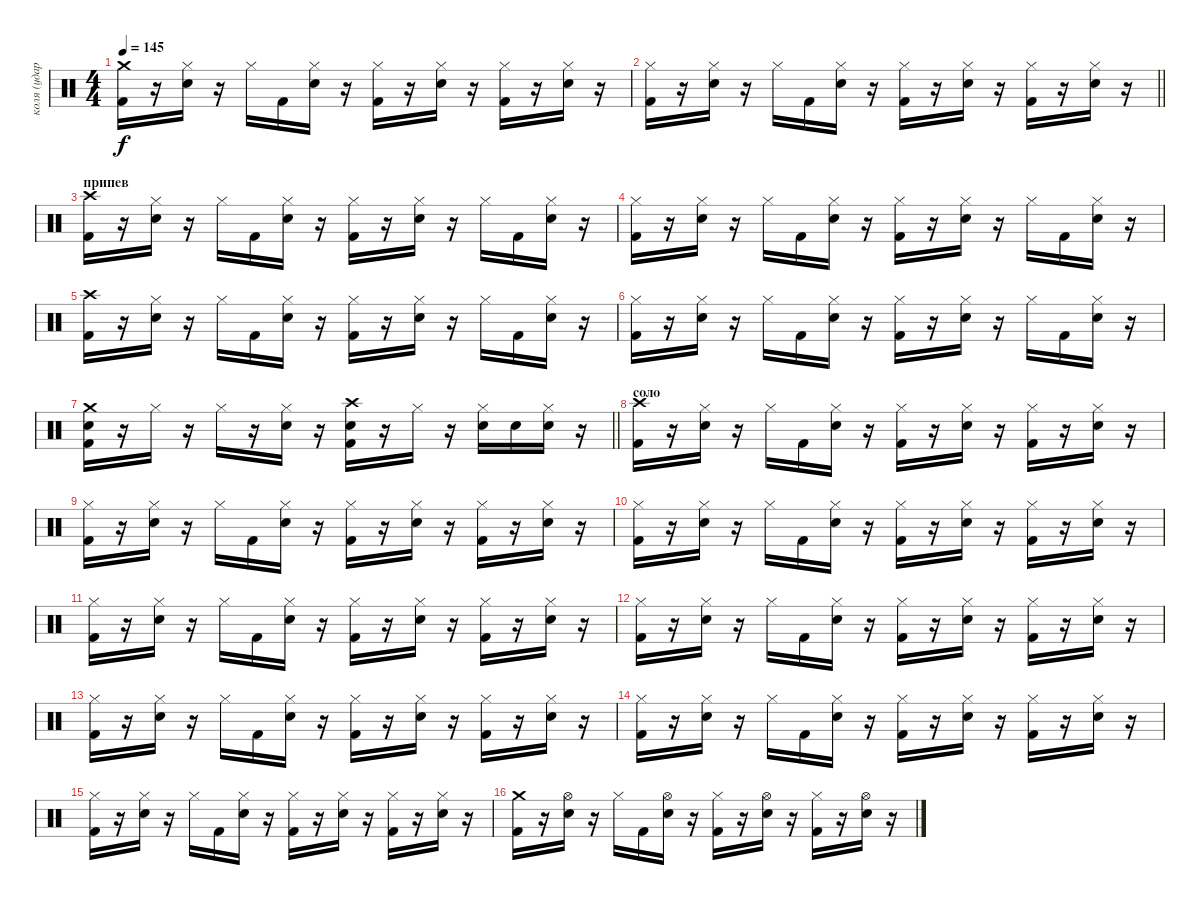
\track ("коля (ударные)" "коля (удар") {instrument percussion}
\staff {score}
\articulation defaults
\ts (4 4)
\tempo 145
\clef neutral
\ks c
("Kick (hit) 2" "Crash medium (hit)").16{dy f} r.16 ("Snare (hit) 2" "Hi-Hat (closed)").16 r.16 "Hi-Hat (closed)".16 "Kick (hit) 2".16 ("Snare (hit) 2" "Hi-Hat (closed)").16 r.16 ("Kick (hit) 2" "Hi-Hat (closed)").16 r.16 ("Snare (hit) 2" "Hi-Hat (closed)").16 r.16 ("Kick (hit) 2" "Hi-Hat (closed)").16 r.16 ("Snare (hit) 2" "Hi-Hat (closed)").16 r.16 |
\barLineRight lightlight
("Kick (hit) 2" "Hi-Hat (closed)").16 r.16 ("Snare (hit) 2" "Hi-Hat (closed)").16 r.16 "Hi-Hat (closed)".16 "Kick (hit) 2".16 ("Snare (hit) 2" "Hi-Hat (closed)").16 r.16 ("Kick (hit) 2" "Hi-Hat (closed)").16 r.16 ("Snare (hit) 2" "Hi-Hat (closed)").16 r.16 ("Kick (hit) 2" "Hi-Hat (closed)").16 r.16 ("Snare (hit) 2" "Hi-Hat (closed)").16 r.16 |
\section ("" "припев")
("Kick (hit) 2" "Crash high (hit)").16 r.16 ("Snare (hit) 2" "Hi-Hat (closed)").16 r.16 "Hi-Hat (closed)".16 "Kick (hit) 2".16 ("Snare (hit) 2" "Hi-Hat (closed)").16 r.16 ("Kick (hit) 2" "Hi-Hat (closed)").16 r.16 ("Snare (hit) 2" "Hi-Hat (closed)").16 r.16 "Hi-Hat (closed)".16 "Kick (hit) 2".16 ("Snare (hit) 2" "Hi-Hat (closed)").16 r.16 |
("Kick (hit) 2" "Hi-Hat (closed)").16 r.16 ("Snare (hit) 2" "Hi-Hat (closed)").16 r.16 "Hi-Hat (closed)".16 "Kick (hit) 2".16 ("Snare (hit) 2" "Hi-Hat (closed)").16 r.16 ("Kick (hit) 2" "Hi-Hat (closed)").16 r.16 ("Snare (hit) 2" "Hi-Hat (closed)").16 r.16 "Hi-Hat (closed)".16 "Kick (hit) 2".16 ("Snare (hit) 2" "Hi-Hat (closed)").16 r.16 |
("Kick (hit) 2" "Crash high (hit)").16 r.16 ("Snare (hit) 2" "Hi-Hat (closed)").16 r.16 "Hi-Hat (closed)".16 "Kick (hit) 2".16 ("Snare (hit) 2" "Hi-Hat (closed)").16 r.16 ("Kick (hit) 2" "Hi-Hat (closed)").16 r.16 ("Snare (hit) 2" "Hi-Hat (closed)").16 r.16 "Hi-Hat (closed)".16 "Kick (hit) 2".16 ("Snare (hit) 2" "Hi-Hat (closed)").16 r.16 |
("Kick (hit) 2" "Hi-Hat (closed)").16 r.16 ("Snare (hit) 2" "Hi-Hat (closed)").16 r.16 "Hi-Hat (closed)".16 "Kick (hit) 2".16 ("Snare (hit) 2" "Hi-Hat (closed)").16 r.16 ("Kick (hit) 2" "Hi-Hat (closed)").16 r.16 ("Snare (hit) 2" "Hi-Hat (closed)").16 r.16 "Hi-Hat (closed)".16 "Kick (hit) 2".16 ("Snare (hit) 2" "Hi-Hat (closed)").16 r.16 |
\barLineRight lightlight
("Kick (hit) 2" "Snare (hit) 2" "Crash medium (hit)").16 r.16 "Hi-Hat (closed)".16 r.16 "Hi-Hat (closed)".16 r.16 ("Snare (hit) 2" "Hi-Hat (closed)").16 r.16 ("Kick (hit) 2" "Snare (hit) 2" "Crash high (hit)").16 r.16 "Hi-Hat (closed)".16 r.16 ("Snare (hit) 2" "Hi-Hat (closed)").16 "Snare (hit) 2".16 ("Snare (hit) 2" "Hi-Hat (closed)").16 r.16 |
\section ("" "соло")
("Kick (hit) 2" "Crash high (hit)").16 r.16 ("Snare (hit) 2" "Hi-Hat (closed)").16 r.16 "Hi-Hat (closed)".16 "Kick (hit) 2".16 ("Snare (hit) 2" "Hi-Hat (closed)").16 r.16 ("Kick (hit) 2" "Hi-Hat (closed)").16 r.16 ("Snare (hit) 2" "Hi-Hat (closed)").16 r.16 ("Kick (hit) 2" "Hi-Hat (closed)").16 r.16 ("Snare (hit) 2" "Hi-Hat (closed)").16 r.16 |
("Kick (hit) 2" "Hi-Hat (closed)").16 r.16 ("Snare (hit) 2" "Hi-Hat (closed)").16 r.16 "Hi-Hat (closed)".16 "Kick (hit) 2".16 ("Snare (hit) 2" "Hi-Hat (closed)").16 r.16 ("Kick (hit) 2" "Hi-Hat (closed)").16 r.16 ("Snare (hit) 2" "Hi-Hat (closed)").16 r.16 ("Kick (hit) 2" "Hi-Hat (closed)").16 r.16 ("Snare (hit) 2" "Hi-Hat (closed)").16 r.16 |
("Kick (hit) 2" "Hi-Hat (closed)").16 r.16 ("Snare (hit) 2" "Hi-Hat (closed)").16 r.16 "Hi-Hat (closed)".16 "Kick (hit) 2".16 ("Snare (hit) 2" "Hi-Hat (closed)").16 r.16 ("Kick (hit) 2" "Hi-Hat (closed)").16 r.16 ("Snare (hit) 2" "Hi-Hat (closed)").16 r.16 ("Kick (hit) 2" "Hi-Hat (closed)").16 r.16 ("Snare (hit) 2" "Hi-Hat (closed)").16 r.16 |
("Kick (hit) 2" "Hi-Hat (closed)").16 r.16 ("Snare (hit) 2" "Hi-Hat (closed)").16 r.16 "Hi-Hat (closed)".16 "Kick (hit) 2".16 ("Snare (hit) 2" "Hi-Hat (closed)").16 r.16 ("Kick (hit) 2" "Hi-Hat (closed)").16 r.16 ("Snare (hit) 2" "Hi-Hat (closed)").16 r.16 ("Kick (hit) 2" "Hi-Hat (closed)").16 r.16 ("Snare (hit) 2" "Hi-Hat (closed)").16 r.16 |
("Kick (hit) 2" "Hi-Hat (closed)").16 r.16 ("Snare (hit) 2" "Hi-Hat (closed)").16 r.16 "Hi-Hat (closed)".16 "Kick (hit) 2".16 ("Snare (hit) 2" "Hi-Hat (closed)").16 r.16 ("Kick (hit) 2" "Hi-Hat (closed)").16 r.16 ("Snare (hit) 2" "Hi-Hat (closed)").16 r.16 ("Kick (hit) 2" "Hi-Hat (closed)").16 r.16 ("Snare (hit) 2" "Hi-Hat (closed)").16 r.16 |
("Kick (hit) 2" "Hi-Hat (closed)").16 r.16 ("Snare (hit) 2" "Hi-Hat (closed)").16 r.16 "Hi-Hat (closed)".16 "Kick (hit) 2".16 ("Snare (hit) 2" "Hi-Hat (closed)").16 r.16 ("Kick (hit) 2" "Hi-Hat (closed)").16 r.16 ("Snare (hit) 2" "Hi-Hat (closed)").16 r.16 ("Kick (hit) 2" "Hi-Hat (closed)").16 r.16 ("Snare (hit) 2" "Hi-Hat (closed)").16 r.16 |
("Kick (hit) 2" "Hi-Hat (closed)").16 r.16 ("Snare (hit) 2" "Hi-Hat (closed)").16 r.16 "Hi-Hat (closed)".16 "Kick (hit) 2".16 ("Snare (hit) 2" "Hi-Hat (closed)").16 r.16 ("Kick (hit) 2" "Hi-Hat (closed)").16 r.16 ("Snare (hit) 2" "Hi-Hat (closed)").16 r.16 ("Kick (hit) 2" "Hi-Hat (closed)").16 r.16 ("Snare (hit) 2" "Hi-Hat (closed)").16 r.16 |
("Kick (hit) 2" "Hi-Hat (closed)").16 r.16 ("Snare (hit) 2" "Hi-Hat (closed)").16 r.16 "Hi-Hat (closed)".16 "Kick (hit) 2".16 ("Snare (hit) 2" "Hi-Hat (closed)").16 r.16 ("Kick (hit) 2" "Hi-Hat (closed)").16 r.16 ("Snare (hit) 2" "Hi-Hat (closed)").16 r.16 ("Kick (hit) 2" "Hi-Hat (closed)").16 r.16 ("Snare (hit) 2" "Hi-Hat (closed)").16 r.16 |
("Kick (hit) 2" "Crash medium (hit)").16 r.16 ("Snare (hit) 2" "Hi-Hat (open)").16 r.16 "Hi-Hat (closed)".16 "Kick (hit) 2".16 ("Snare (hit) 2" "Hi-Hat (open)").16 r.16 ("Kick (hit) 2" "Hi-Hat (closed)").16 r.16 ("Snare (hit) 2" "Hi-Hat (open)").16 r.16 ("Kick (hit) 2" "Hi-Hat (closed)").16 r.16 ("Snare (hit) 2" "Hi-Hat (open)").16 r.16
